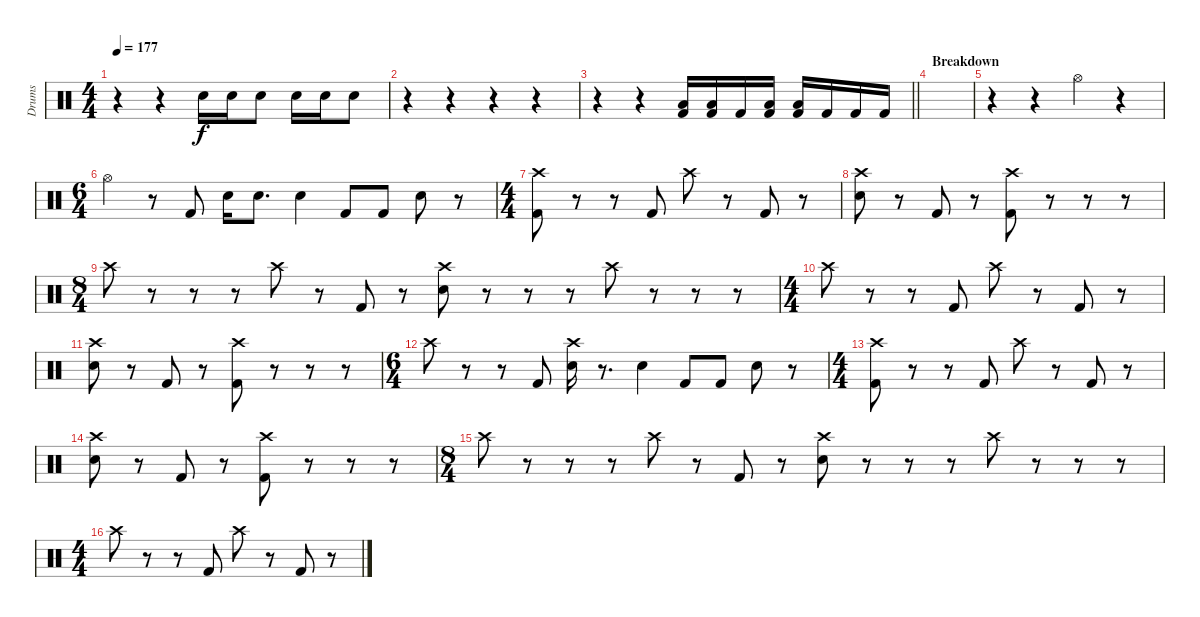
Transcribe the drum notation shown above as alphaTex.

\track ("Drums" "Drums") {instrument percussion}
\staff {score}
\articulation defaults
\ts (4 4)
\tempo 177
\clef neutral
\ks c
r.4{dy f} r.4 "Electric Snare (hit)".16 "Electric Snare (hit)".16 "Electric Snare (hit)".8 "Electric Snare (hit)".16 "Electric Snare (hit)".16 "Electric Snare (hit)".8 |
r.4 r.4 r.4 r.4 |
\barLineRight lightlight
r.4 r.4 ("Low Floor Tom (hit)" "Kick (hit) 2").16 ("Low Floor Tom (hit)" "Kick (hit) 2").16 "Kick (hit) 2".16 ("Low Floor Tom (hit)" "Kick (hit) 2").16 ("Low Floor Tom (hit)" "Kick (hit) 2").16 "Kick (hit) 2".16 "Kick (hit) 2".16 "Kick (hit) 2".16 |
\section ("" "Breakdown")
|
r.4 r.4 "Hi-Hat (open)".4 r.4 |
\ts (6 4)
"Hi-Hat (open)".4 r.8 "Kick (hit) 2".8 "Electric Snare (hit)".16 "Electric Snare (hit)".8{d} "Electric Snare (hit)".4 "Kick (hit) 2".8 "Kick (hit) 2".8 "Electric Snare (hit)".8 r.8 |
\ts (4 4)
("Crash high (hit)" "Kick (hit) 2").8 r.8 r.8 "Kick (hit) 2".8 "Crash high (hit)".8 r.8 "Kick (hit) 2".8 r.8 |
("Crash high (hit)" "Electric Snare (hit)").8 r.8 "Kick (hit) 2".8 r.8 ("Crash high (hit)" "Kick (hit) 2").8 r.8 r.8 r.8 |
\ts (8 4)
"Crash high (hit)".8 r.8 r.8 r.8 "Crash high (hit)".8 r.8 "Kick (hit) 2".8 r.8 ("Crash high (hit)" "Electric Snare (hit)").8 r.8 r.8 r.8 "Crash high (hit)".8 r.8 r.8 r.8 |
\ts (4 4)
"Crash high (hit)".8 r.8 r.8 "Kick (hit) 2".8 "Crash high (hit)".8 r.8 "Kick (hit) 2".8 r.8 |
("Crash high (hit)" "Electric Snare (hit)").8 r.8 "Kick (hit) 2".8 r.8 ("Crash high (hit)" "Kick (hit) 2").8 r.8 r.8 r.8 |
\ts (6 4)
"Crash high (hit)".8 r.8 r.8 "Kick (hit) 2".8 ("Crash high (hit)" "Electric Snare (hit)").16 r.8{d} "Electric Snare (hit)".4 "Kick (hit) 2".8 "Kick (hit) 2".8 "Electric Snare (hit)".8 r.8 |
\ts (4 4)
("Crash high (hit)" "Kick (hit) 2").8 r.8 r.8 "Kick (hit) 2".8 "Crash high (hit)".8 r.8 "Kick (hit) 2".8 r.8 |
("Crash high (hit)" "Electric Snare (hit)").8 r.8 "Kick (hit) 2".8 r.8 ("Crash high (hit)" "Kick (hit) 2").8 r.8 r.8 r.8 |
\ts (8 4)
"Crash high (hit)".8 r.8 r.8 r.8 "Crash high (hit)".8 r.8 "Kick (hit) 2".8 r.8 ("Crash high (hit)" "Electric Snare (hit)").8 r.8 r.8 r.8 "Crash high (hit)".8 r.8 r.8 r.8 |
\ts (4 4)
"Crash high (hit)".8 r.8 r.8 "Kick (hit) 2".8 "Crash high (hit)".8 r.8 "Kick (hit) 2".8 r.8
